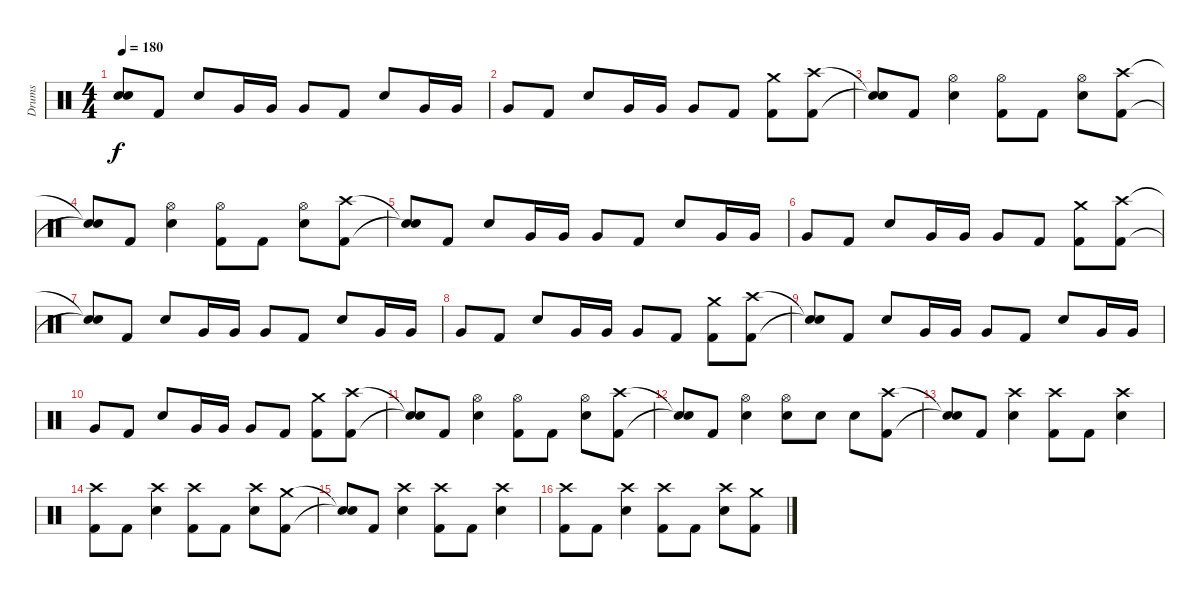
\track ("Drums" "Drums") {instrument percussion}
\staff {score}
\articulation defaults
\ts (4 4)
\tempo 180
\clef neutral
\ks c
("Snare (hit)"{t} "Snare (hit)"{t}).8{dy f} "Kick (hit) 2".8 "Electric Snare (hit)".8 "Very Low Tom (hit)".16 "Very Low Tom (hit)".16 "Very Low Tom (hit)".8 "Kick (hit) 2".8 "Electric Snare (hit)".8 "Very Low Tom (hit)".16 "Very Low Tom (hit)".16 |
"Very Low Tom (hit)".8 "Kick (hit) 2".8 "Electric Snare (hit)".8 "Very Low Tom (hit)".16 "Very Low Tom (hit)".16 "Very Low Tom (hit)".8 "Kick (hit) 2".8 ("Crash medium (hit)" "Kick (hit) 2").8 ("Crash high (hit)" "Kick (hit) 2").8 |
("Snare (hit)"{t} "Snare (hit)"{t}).8 "Kick (hit) 2".8 ("Hi-Hat (open)" "Electric Snare (hit)").4 ("Hi-Hat (open)" "Kick (hit) 2").8 "Kick (hit) 2".8 ("Hi-Hat (open)" "Electric Snare (hit)").8 ("Crash high (hit)" "Kick (hit) 2").8 |
("Snare (hit)"{t} "Snare (hit)"{t}).8 "Kick (hit) 2".8 ("Hi-Hat (open)" "Electric Snare (hit)").4 ("Hi-Hat (open)" "Kick (hit) 2").8 "Kick (hit) 2".8 ("Hi-Hat (open)" "Electric Snare (hit)").8 ("Crash high (hit)" "Kick (hit) 2").8 |
("Snare (hit)"{t} "Snare (hit)"{t}).8 "Kick (hit) 2".8 "Electric Snare (hit)".8 "Very Low Tom (hit)".16 "Very Low Tom (hit)".16 "Very Low Tom (hit)".8 "Kick (hit) 2".8 "Electric Snare (hit)".8 "Very Low Tom (hit)".16 "Very Low Tom (hit)".16 |
"Very Low Tom (hit)".8 "Kick (hit) 2".8 "Electric Snare (hit)".8 "Very Low Tom (hit)".16 "Very Low Tom (hit)".16 "Very Low Tom (hit)".8 "Kick (hit) 2".8 ("Crash medium (hit)" "Kick (hit) 2").8 ("Crash high (hit)" "Kick (hit) 2").8 |
("Snare (hit)"{t} "Snare (hit)"{t}).8 "Kick (hit) 2".8 "Electric Snare (hit)".8 "Very Low Tom (hit)".16 "Very Low Tom (hit)".16 "Very Low Tom (hit)".8 "Kick (hit) 2".8 "Electric Snare (hit)".8 "Very Low Tom (hit)".16 "Very Low Tom (hit)".16 |
"Very Low Tom (hit)".8 "Kick (hit) 2".8 "Electric Snare (hit)".8 "Very Low Tom (hit)".16 "Very Low Tom (hit)".16 "Very Low Tom (hit)".8 "Kick (hit) 2".8 ("Crash medium (hit)" "Kick (hit) 2").8 ("Crash high (hit)" "Kick (hit) 2").8 |
("Snare (hit)"{t} "Snare (hit)"{t}).8 "Kick (hit) 2".8 "Electric Snare (hit)".8 "Very Low Tom (hit)".16 "Very Low Tom (hit)".16 "Very Low Tom (hit)".8 "Kick (hit) 2".8 "Electric Snare (hit)".8 "Very Low Tom (hit)".16 "Very Low Tom (hit)".16 |
"Very Low Tom (hit)".8 "Kick (hit) 2".8 "Electric Snare (hit)".8 "Very Low Tom (hit)".16 "Very Low Tom (hit)".16 "Very Low Tom (hit)".8 "Kick (hit) 2".8 ("Crash medium (hit)" "Kick (hit) 2").8 ("Crash high (hit)" "Kick (hit) 2").8 |
("Snare (hit)"{t} "Snare (hit)"{t}).8 "Kick (hit) 2".8 ("Hi-Hat (open)" "Electric Snare (hit)").4 ("Hi-Hat (open)" "Kick (hit) 2").8 "Kick (hit) 2".8 ("Hi-Hat (open)" "Electric Snare (hit)").8 ("Crash high (hit)" "Kick (hit) 2").8 |
("Snare (hit)"{t} "Snare (hit)"{t}).8 "Kick (hit) 2".8 ("Hi-Hat (open)" "Electric Snare (hit)").4 ("Hi-Hat (open)" "Electric Snare (hit)").8 "Electric Snare (hit)".8 "Electric Snare (hit)".8 ("Crash high (hit)" "Kick (hit) 2").8 |
("Snare (hit)"{t} "Snare (hit)"{t}).8 "Kick (hit) 2".8 ("Crash high (hit)" "Electric Snare (hit)").4 ("Crash high (hit)" "Kick (hit) 2").8 "Kick (hit) 2".8 ("Crash high (hit)" "Electric Snare (hit)").4 |
("Crash high (hit)" "Kick (hit) 2").8 "Kick (hit) 2".8 ("Crash high (hit)" "Electric Snare (hit)").4 ("Crash high (hit)" "Kick (hit) 2").8 "Kick (hit) 2".8 ("Crash high (hit)" "Electric Snare (hit)").8 ("Crash medium (hit)" "Kick (hit) 2").8 |
("Snare (hit)"{t} "Snare (hit)"{t}).8 "Kick (hit) 2".8 ("Crash high (hit)" "Electric Snare (hit)").4 ("Crash high (hit)" "Kick (hit) 2").8 "Kick (hit) 2".8 ("Crash high (hit)" "Electric Snare (hit)").4 |
("Crash high (hit)" "Kick (hit) 2").8 "Kick (hit) 2".8 ("Crash high (hit)" "Electric Snare (hit)").4 ("Crash high (hit)" "Kick (hit) 2").8 "Kick (hit) 2".8 ("Crash high (hit)" "Electric Snare (hit)").8 ("Crash medium (hit)" "Kick (hit) 2").8
